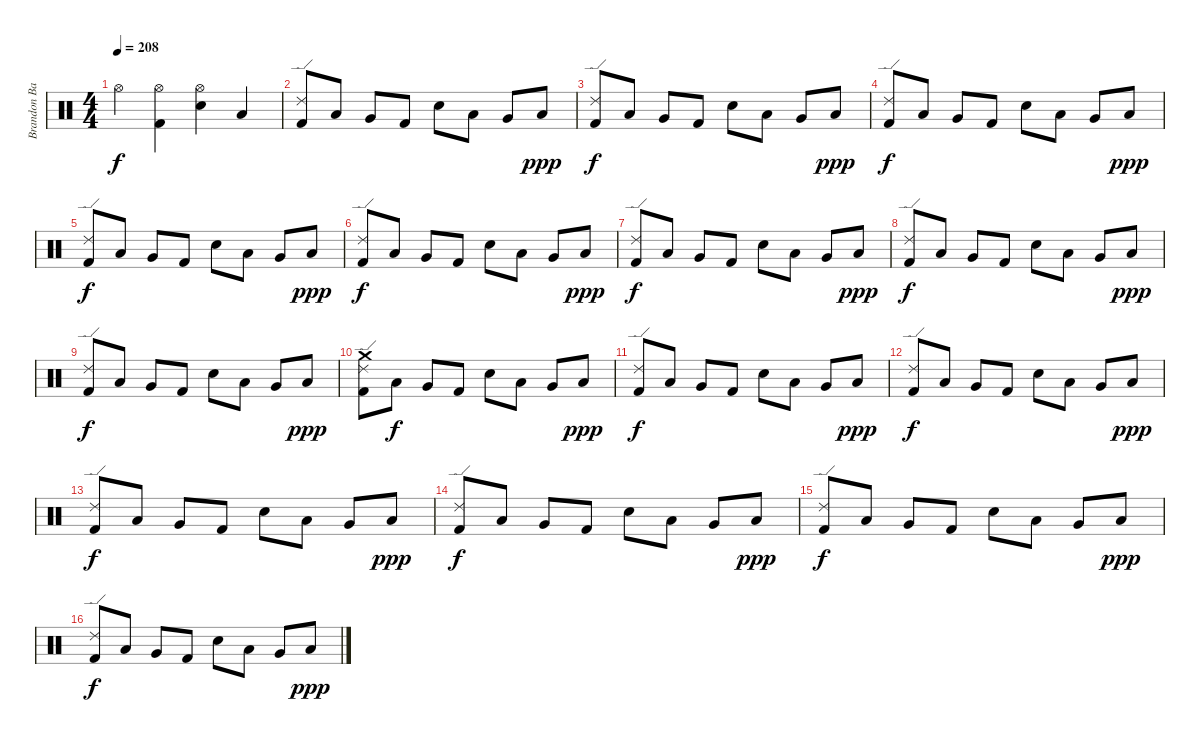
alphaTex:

\track ("Brandon Barnes - Drums" "Brandon Ba") {instrument percussion}
\staff {score}
\articulation defaults
\ts (4 4)
\tempo 208
\clef neutral
\ks c "Hi-Hat (open)".4{dy f}
("Kick (hit) 2" "Hi-Hat (open)").4 ("Snare (hit) 2" "Hi-Hat (open)").4 "Low Tom (hit)".4 |
("Ride (edge) 2" "Kick (hit) 2").8 "Low Tom (hit)".8 "Very Low Tom (hit)".8 "Kick (hit) 2".8 "Snare (hit) 2".8 "Low Tom (hit)".8 "Very Low Tom (hit)".8 "Low Floor Tom (hit)".8{dy ppp} |
("Ride (edge) 2" "Kick (hit) 2").8{dy f} "Low Tom (hit)".8 "Very Low Tom (hit)".8 "Kick (hit) 2".8 "Snare (hit) 2".8 "Low Tom (hit)".8 "Very Low Tom (hit)".8 "Low Floor Tom (hit)".8{dy ppp} |
("Ride (edge) 2" "Kick (hit) 2").8{dy f} "Low Tom (hit)".8 "Very Low Tom (hit)".8 "Kick (hit) 2".8 "Snare (hit) 2".8 "Low Tom (hit)".8 "Very Low Tom (hit)".8 "Low Floor Tom (hit)".8{dy ppp} |
("Ride (edge) 2" "Kick (hit) 2").8{dy f} "Low Tom (hit)".8 "Very Low Tom (hit)".8 "Kick (hit) 2".8 "Snare (hit) 2".8 "Low Tom (hit)".8 "Very Low Tom (hit)".8 "Low Floor Tom (hit)".8{dy ppp} |
("Ride (edge) 2" "Kick (hit) 2").8{dy f} "Low Tom (hit)".8 "Very Low Tom (hit)".8 "Kick (hit) 2".8 "Snare (hit) 2".8 "Low Tom (hit)".8 "Very Low Tom (hit)".8 "Low Floor Tom (hit)".8{dy ppp} |
("Ride (edge) 2" "Kick (hit) 2").8{dy f} "Low Tom (hit)".8 "Very Low Tom (hit)".8 "Kick (hit) 2".8 "Snare (hit) 2".8 "Low Tom (hit)".8 "Very Low Tom (hit)".8 "Low Floor Tom (hit)".8{dy ppp} |
("Ride (edge) 2" "Kick (hit) 2").8{dy f} "Low Tom (hit)".8 "Very Low Tom (hit)".8 "Kick (hit) 2".8 "Snare (hit) 2".8 "Low Tom (hit)".8 "Very Low Tom (hit)".8 "Low Floor Tom (hit)".8{dy ppp} |
("Ride (edge) 2" "Kick (hit) 2").8{dy f} "Low Tom (hit)".8 "Very Low Tom (hit)".8 "Kick (hit) 2".8 "Snare (hit) 2".8 "Low Tom (hit)".8 "Very Low Tom (hit)".8 "Low Floor Tom (hit)".8{dy ppp} |
("Ride (edge) 2" "Kick (hit) 2" "Crash medium (hit)").8 "Low Tom (hit)".8{dy f} "Very Low Tom (hit)".8 "Kick (hit) 2".8 "Snare (hit) 2".8 "Low Tom (hit)".8 "Very Low Tom (hit)".8 "Low Floor Tom (hit)".8{dy ppp} |
("Ride (edge) 2" "Kick (hit) 2").8{dy f} "Low Tom (hit)".8 "Very Low Tom (hit)".8 "Kick (hit) 2".8 "Snare (hit) 2".8 "Low Tom (hit)".8 "Very Low Tom (hit)".8 "Low Floor Tom (hit)".8{dy ppp} |
("Ride (edge) 2" "Kick (hit) 2").8{dy f} "Low Tom (hit)".8 "Very Low Tom (hit)".8 "Kick (hit) 2".8 "Snare (hit) 2".8 "Low Tom (hit)".8 "Very Low Tom (hit)".8 "Low Floor Tom (hit)".8{dy ppp} |
("Ride (edge) 2" "Kick (hit) 2").8{dy f} "Low Tom (hit)".8 "Very Low Tom (hit)".8 "Kick (hit) 2".8 "Snare (hit) 2".8 "Low Tom (hit)".8 "Very Low Tom (hit)".8 "Low Floor Tom (hit)".8{dy ppp} |
("Ride (edge) 2" "Kick (hit) 2").8{dy f} "Low Tom (hit)".8 "Very Low Tom (hit)".8 "Kick (hit) 2".8 "Snare (hit) 2".8 "Low Tom (hit)".8 "Very Low Tom (hit)".8 "Low Floor Tom (hit)".8{dy ppp} |
("Ride (edge) 2" "Kick (hit) 2").8{dy f} "Low Tom (hit)".8 "Very Low Tom (hit)".8 "Kick (hit) 2".8 "Snare (hit) 2".8 "Low Tom (hit)".8 "Very Low Tom (hit)".8 "Low Floor Tom (hit)".8{dy ppp} |
("Ride (edge) 2" "Kick (hit) 2").8{dy f} "Low Tom (hit)".8 "Very Low Tom (hit)".8 "Kick (hit) 2".8 "Snare (hit) 2".8 "Low Tom (hit)".8 "Very Low Tom (hit)".8 "Low Floor Tom (hit)".8{dy ppp}
